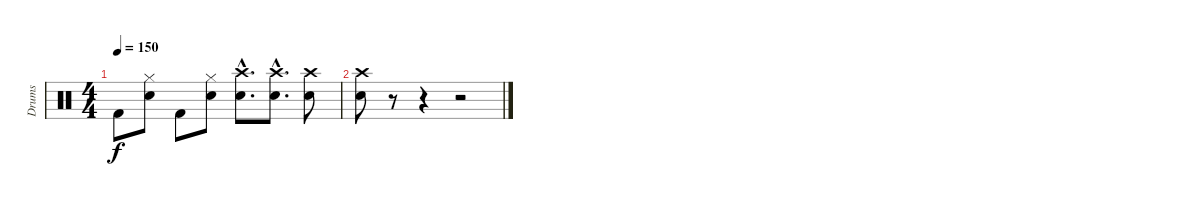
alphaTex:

\track ("Drums" "Drums") {instrument percussion}
\staff {score}
\articulation defaults
\ts (4 4)
\tempo 150
\clef neutral
\ks c "Kick (hit) 2".8{dy f}
("Hi-Hat (closed)" "Electric Snare (hit)").8 "Kick (hit) 2".8 ("Hi-Hat (closed)" "Electric Snare (hit)").8 ("Crash high (hit)"{hac} "Electric Snare (hit)"{hac}).8{d} ("Crash high (hit)"{hac} "Electric Snare (hit)"{hac}).8{d} ("Crash high (hit)" "Electric Snare (hit)").8 |
("Crash high (hit)" "Electric Snare (hit)").8 r.8 r.4 r.2
